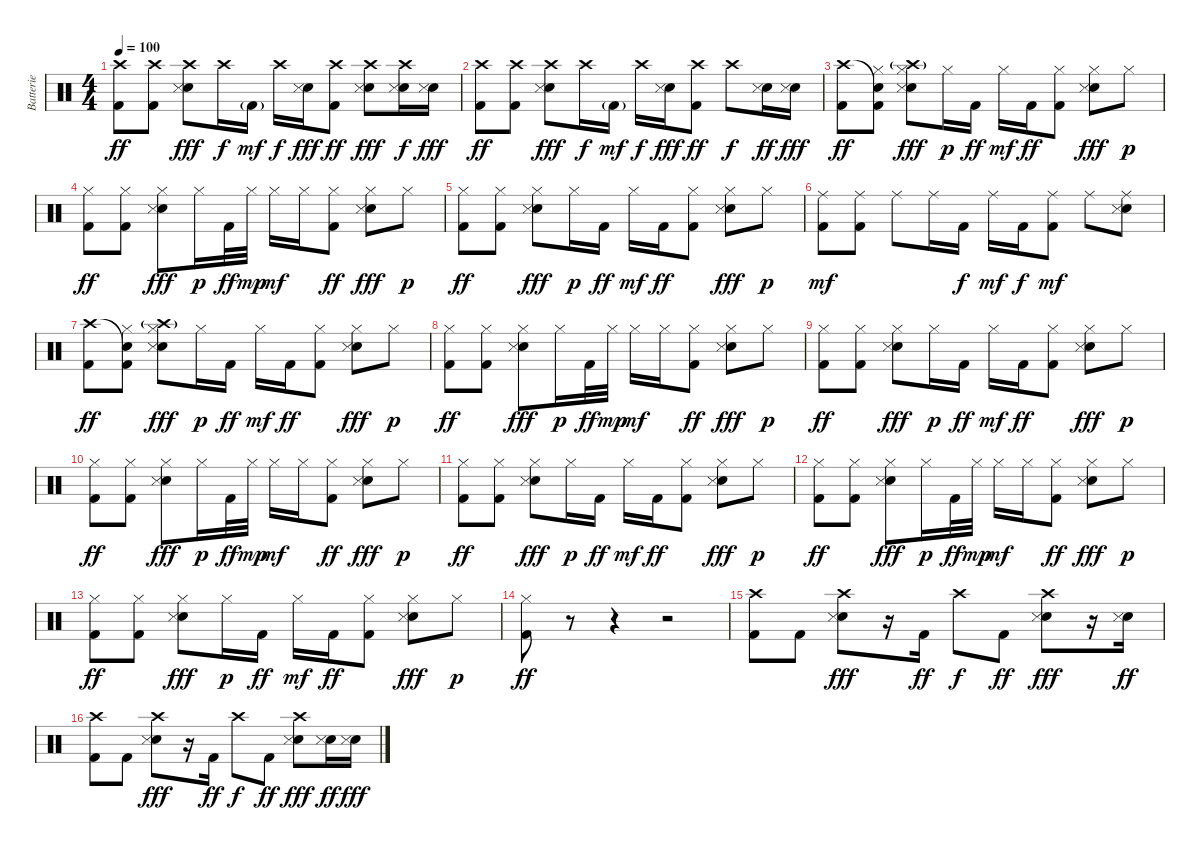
\track ("Batterie" "Batterie") {instrument percussion}
\staff {score}
\articulation defaults
\ts (4 4)
\tempo 100
\clef neutral
\ks c
("Crash high (hit)" "Kick (hit) 2").8{dy ff} ("Crash high (hit)" "Kick (hit) 2").8 ("Crash high (hit)" "Snare (hit) 2" "Snare (side stick) 3").8{dy fff} "Crash high (hit)".16{dy f} "Kick (hit) 2"{g}.16{dy mf} "Crash high (hit)".16{dy f} ("Snare (hit) 2" "Snare (side stick) 3").16{dy fff} ("Crash high (hit)" "Kick (hit) 2").8{dy ff} ("Crash high (hit)" "Snare (hit) 2" "Snare (side stick) 3").8{dy fff} ("Crash high (hit)" "Snare (hit) 2" "Snare (side stick) 3").16{dy f} ("Snare (hit) 2" "Snare (side stick) 3").16{dy fff} |
("Crash high (hit)" "Kick (hit) 2").8{dy ff} ("Crash high (hit)" "Kick (hit) 2").8 ("Crash high (hit)" "Snare (hit) 2" "Snare (side stick) 3").8{dy fff} "Crash high (hit)".16{dy f} "Kick (hit) 2"{g}.16{dy mf} "Crash high (hit)".16{dy f} ("Snare (hit) 2" "Snare (side stick) 3").16{dy fff} ("Crash high (hit)" "Kick (hit) 2").8{dy ff} "Crash high (hit)".8{dy f} ("Snare (hit) 2" "Snare (side stick) 3").16{dy ff} ("Snare (hit) 2" "Snare (side stick) 3").16{dy fff} |
("Crash high (hit)" "Kick (hit) 2").8{dy ff} ("Snare (hit)"{t} "Hi-Hat (closed)" "Kick (hit) 2").8 ("Crash high (hit)"{g} "Hi-Hat (closed)" "Snare (hit) 2" "Snare (side stick) 3").8{dy fff} "Hi-Hat (closed)".16{dy p} "Kick (hit) 2".16{dy ff} "Hi-Hat (closed)".16{dy mf} "Kick (hit) 2".16{dy ff} ("Hi-Hat (closed)" "Kick (hit) 2").8 ("Hi-Hat (closed)" "Snare (hit) 2" "Snare (side stick) 3").8{dy fff} "Hi-Hat (closed)".8{dy p} |
("Hi-Hat (closed)" "Kick (hit) 2").8{dy ff} ("Hi-Hat (closed)" "Kick (hit) 2").8 ("Hi-Hat (closed)" "Snare (hit) 2" "Snare (side stick) 3").8{dy fff} "Hi-Hat (closed)".16{dy p} "Kick (hit) 2".32{dy ff} "Hi-Hat (closed)".32{dy mp} "Hi-Hat (closed)".16{dy mf} "Hi-Hat (closed)".16 ("Hi-Hat (closed)" "Kick (hit) 2").8{dy ff} ("Hi-Hat (closed)" "Snare (hit) 2" "Snare (side stick) 3").8{dy fff} "Hi-Hat (closed)".8{dy p} |
("Hi-Hat (closed)" "Kick (hit) 2").8{dy ff} ("Hi-Hat (closed)" "Kick (hit) 2").8 ("Hi-Hat (closed)" "Snare (hit) 2" "Snare (side stick) 3").8{dy fff} "Hi-Hat (closed)".16{dy p} "Kick (hit) 2".16{dy ff} "Hi-Hat (closed)".16{dy mf} "Kick (hit) 2".16{dy ff} ("Hi-Hat (closed)" "Kick (hit) 2").8 ("Hi-Hat (closed)" "Snare (hit) 2" "Snare (side stick) 3").8{dy fff} "Hi-Hat (closed)".8{dy p} |
("Ride (middle)" "Kick (hit) 2").8{dy mf} ("Ride (middle)" "Kick (hit) 2").8 "Ride (middle)".8 "Ride (middle)".16 "Kick (hit) 2".16{dy f} "Ride (middle)".16{dy mf} "Kick (hit) 2".16{dy f} ("Ride (middle)" "Kick (hit) 2").8{dy mf} "Ride (middle)".8 ("Ride (middle)" "Snare (hit) 2" "Snare (side stick) 3").8 |
("Crash high (hit)" "Kick (hit) 2").8{dy ff} ("Snare (hit)"{t} "Hi-Hat (closed)" "Kick (hit) 2").8 ("Crash high (hit)"{g} "Hi-Hat (closed)" "Snare (hit) 2" "Snare (side stick) 3").8{dy fff} "Hi-Hat (closed)".16{dy p} "Kick (hit) 2".16{dy ff} "Hi-Hat (closed)".16{dy mf} "Kick (hit) 2".16{dy ff} ("Hi-Hat (closed)" "Kick (hit) 2").8 ("Hi-Hat (closed)" "Snare (hit) 2" "Snare (side stick) 3").8{dy fff} "Hi-Hat (closed)".8{dy p} |
("Hi-Hat (closed)" "Kick (hit) 2").8{dy ff} ("Hi-Hat (closed)" "Kick (hit) 2").8 ("Hi-Hat (closed)" "Snare (hit) 2" "Snare (side stick) 3").8{dy fff} "Hi-Hat (closed)".16{dy p} "Kick (hit) 2".32{dy ff} "Hi-Hat (closed)".32{dy mp} "Hi-Hat (closed)".16{dy mf} "Hi-Hat (closed)".16 ("Hi-Hat (closed)" "Kick (hit) 2").8{dy ff} ("Hi-Hat (closed)" "Snare (hit) 2" "Snare (side stick) 3").8{dy fff} "Hi-Hat (closed)".8{dy p} |
("Hi-Hat (closed)" "Kick (hit) 2").8{dy ff} ("Hi-Hat (closed)" "Kick (hit) 2").8 ("Hi-Hat (closed)" "Snare (hit) 2" "Snare (side stick) 3").8{dy fff} "Hi-Hat (closed)".16{dy p} "Kick (hit) 2".16{dy ff} "Hi-Hat (closed)".16{dy mf} "Kick (hit) 2".16{dy ff} ("Hi-Hat (closed)" "Kick (hit) 2").8 ("Hi-Hat (closed)" "Snare (hit) 2" "Snare (side stick) 3").8{dy fff} "Hi-Hat (closed)".8{dy p} |
("Hi-Hat (closed)" "Kick (hit) 2").8{dy ff} ("Hi-Hat (closed)" "Kick (hit) 2").8 ("Hi-Hat (closed)" "Snare (hit) 2" "Snare (side stick) 3").8{dy fff} "Hi-Hat (closed)".16{dy p} "Kick (hit) 2".32{dy ff} "Hi-Hat (closed)".32{dy mp} "Hi-Hat (closed)".16{dy mf} "Hi-Hat (closed)".16 ("Hi-Hat (closed)" "Kick (hit) 2").8{dy ff} ("Hi-Hat (closed)" "Snare (hit) 2" "Snare (side stick) 3").8{dy fff} "Hi-Hat (closed)".8{dy p} |
("Hi-Hat (closed)" "Kick (hit) 2").8{dy ff} ("Hi-Hat (closed)" "Kick (hit) 2").8 ("Hi-Hat (closed)" "Snare (hit) 2" "Snare (side stick) 3").8{dy fff} "Hi-Hat (closed)".16{dy p} "Kick (hit) 2".16{dy ff} "Hi-Hat (closed)".16{dy mf} "Kick (hit) 2".16{dy ff} ("Hi-Hat (closed)" "Kick (hit) 2").8 ("Hi-Hat (closed)" "Snare (hit) 2" "Snare (side stick) 3").8{dy fff} "Hi-Hat (closed)".8{dy p} |
("Hi-Hat (closed)" "Kick (hit) 2").8{dy ff} ("Hi-Hat (closed)" "Kick (hit) 2").8 ("Hi-Hat (closed)" "Snare (hit) 2" "Snare (side stick) 3").8{dy fff} "Hi-Hat (closed)".16{dy p} "Kick (hit) 2".32{dy ff} "Hi-Hat (closed)".32{dy mp} "Hi-Hat (closed)".16{dy mf} "Hi-Hat (closed)".16 ("Hi-Hat (closed)" "Kick (hit) 2").8{dy ff} ("Hi-Hat (closed)" "Snare (hit) 2" "Snare (side stick) 3").8{dy fff} "Hi-Hat (closed)".8{dy p} |
("Hi-Hat (closed)" "Kick (hit) 2").8{dy ff} ("Hi-Hat (closed)" "Kick (hit) 2").8 ("Hi-Hat (closed)" "Snare (hit) 2" "Snare (side stick) 3").8{dy fff} "Hi-Hat (closed)".16{dy p} "Kick (hit) 2".16{dy ff} "Hi-Hat (closed)".16{dy mf} "Kick (hit) 2".16{dy ff} ("Hi-Hat (closed)" "Kick (hit) 2").8 ("Hi-Hat (closed)" "Snare (hit) 2" "Snare (side stick) 3").8{dy fff} "Hi-Hat (closed)".8{dy p} |
("Hi-Hat (closed)" "Kick (hit) 2").8{dy ff} r.8 r.4 r.2 |
("Crash high (hit)" "Kick (hit) 2").8 "Kick (hit) 2".8 ("Crash high (hit)" "Snare (hit) 2" "Snare (side stick) 3").8{dy fff} r.16 "Kick (hit) 2".16{dy ff} "Crash high (hit)".8{dy f} "Kick (hit) 2".8{dy ff} ("Crash high (hit)" "Snare (hit) 2" "Snare (side stick) 3").8{dy fff} r.16 ("Snare (hit) 2" "Snare (side stick) 3").16{dy ff} |
("Crash high (hit)" "Kick (hit) 2").8 "Kick (hit) 2".8 ("Crash high (hit)" "Snare (hit) 2" "Snare (side stick) 3").8{dy fff} r.16 "Kick (hit) 2".16{dy ff} "Crash high (hit)".8{dy f} "Kick (hit) 2".8{dy ff} ("Crash high (hit)" "Snare (hit) 2" "Snare (side stick) 3").8{dy fff} ("Snare (hit) 2" "Snare (side stick) 3").16{dy ff} ("Snare (hit) 2" "Snare (side stick) 3").16{dy fff}
